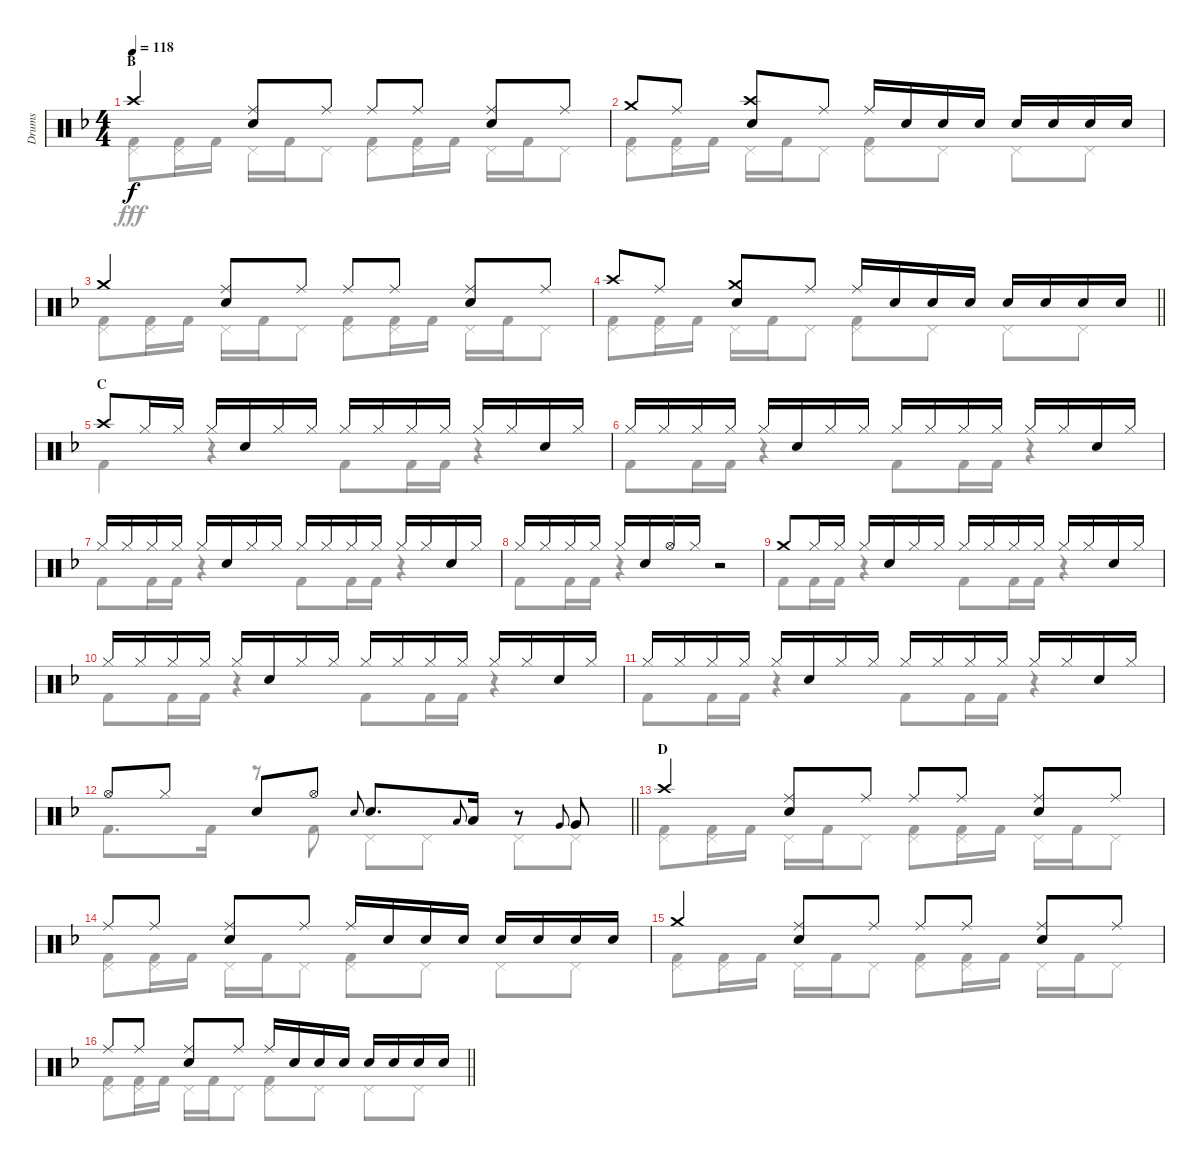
\track ("Drums" "Drums") {instrument percussion}
\staff {score}
\articulation defaults
\voice
\ts (4 4)
\section ("" "B")
\tempo 118
\clef neutral
\ks f "Crash high (hit)".4{dy f}
("Ride (middle)" "Snare (hit) 2").8 "Ride (middle)".8 "Ride (middle)".8 "Ride (middle)".8 ("Ride (middle)" "Snare (hit) 2").8 "Ride (middle)".8 |
"Crash medium (hit)".8 "Ride (middle)".8 ("Crash high (hit)" "Snare (hit) 2").8 "Ride (middle)".8 "Ride (middle)".16 "Snare (hit) 2".16 "Snare (hit) 2".16 "Snare (hit) 2".16 "Snare (hit) 2".16 "Snare (hit) 2".16 "Snare (hit) 2".16 "Snare (hit) 2".16 |
"Crash medium (hit)".4 ("Ride (middle)" "Snare (hit) 2").8 "Ride (middle)".8 "Ride (middle)".8 "Ride (middle)".8 ("Ride (middle)" "Snare (hit) 2").8 "Ride (middle)".8 |
\barLineRight lightlight "Crash high (hit)".8 "Ride (middle)".8
("Crash medium (hit)" "Snare (hit) 2").8 "Ride (middle)".8 "Ride (middle)".16 "Snare (hit) 2".16 "Snare (hit) 2".16 "Snare (hit) 2".16 "Snare (hit) 2".16 "Snare (hit) 2".16 "Snare (hit) 2".16 "Snare (hit) 2".16 |
\section ("" "C")
"Crash high (hit)".8 "Hi-Hat (closed)".16 "Hi-Hat (closed)".16 "Hi-Hat (closed)".16 "Snare (hit) 2".16 "Hi-Hat (closed)".16 "Hi-Hat (closed)".16 "Hi-Hat (closed)".16 "Hi-Hat (closed)".16 "Hi-Hat (closed)".16 "Hi-Hat (closed)".16 "Hi-Hat (closed)".16 "Hi-Hat (closed)".16 "Snare (hit) 2".16 "Hi-Hat (closed)".16 |
"Hi-Hat (closed)".16 "Hi-Hat (closed)".16 "Hi-Hat (closed)".16 "Hi-Hat (closed)".16 "Hi-Hat (closed)".16 "Snare (hit) 2".16 "Hi-Hat (closed)".16 "Hi-Hat (closed)".16 "Hi-Hat (closed)".16 "Hi-Hat (closed)".16 "Hi-Hat (closed)".16 "Hi-Hat (closed)".16 "Hi-Hat (closed)".16 "Hi-Hat (closed)".16 "Snare (hit) 2".16 "Hi-Hat (closed)".16 |
"Hi-Hat (closed)".16 "Hi-Hat (closed)".16 "Hi-Hat (closed)".16 "Hi-Hat (closed)".16 "Hi-Hat (closed)".16 "Snare (hit) 2".16 "Hi-Hat (closed)".16 "Hi-Hat (closed)".16 "Hi-Hat (closed)".16 "Hi-Hat (closed)".16 "Hi-Hat (closed)".16 "Hi-Hat (closed)".16 "Hi-Hat (closed)".16 "Hi-Hat (closed)".16 "Snare (hit) 2".16 "Hi-Hat (closed)".16 |
"Hi-Hat (closed)".16 "Hi-Hat (closed)".16 "Hi-Hat (closed)".16 "Hi-Hat (closed)".16 "Hi-Hat (closed)".16 "Snare (hit) 2".16 "Hi-Hat (open)".16 "Hi-Hat (closed)".16 r.2 |
"Crash medium (hit)".8 "Hi-Hat (closed)".16 "Hi-Hat (closed)".16 "Hi-Hat (closed)".16 "Snare (hit) 2".16 "Hi-Hat (closed)".16 "Hi-Hat (closed)".16 "Hi-Hat (closed)".16 "Hi-Hat (closed)".16 "Hi-Hat (closed)".16 "Hi-Hat (closed)".16 "Hi-Hat (closed)".16 "Hi-Hat (closed)".16 "Snare (hit) 2".16 "Hi-Hat (closed)".16 |
"Hi-Hat (closed)".16 "Hi-Hat (closed)".16 "Hi-Hat (closed)".16 "Hi-Hat (closed)".16 "Hi-Hat (closed)".16 "Snare (hit) 2".16 "Hi-Hat (closed)".16 "Hi-Hat (closed)".16 "Hi-Hat (closed)".16 "Hi-Hat (closed)".16 "Hi-Hat (closed)".16 "Hi-Hat (closed)".16 "Hi-Hat (closed)".16 "Hi-Hat (closed)".16 "Snare (hit) 2".16 "Hi-Hat (closed)".16 |
"Hi-Hat (closed)".16 "Hi-Hat (closed)".16 "Hi-Hat (closed)".16 "Hi-Hat (closed)".16 "Hi-Hat (closed)".16 "Snare (hit) 2".16 "Hi-Hat (closed)".16 "Hi-Hat (closed)".16 "Hi-Hat (closed)".16 "Hi-Hat (closed)".16 "Hi-Hat (closed)".16 "Hi-Hat (closed)".16 "Hi-Hat (closed)".16 "Hi-Hat (closed)".16 "Snare (hit) 2".16 "Hi-Hat (closed)".16 |
\barLineRight lightlight "Hi-Hat (open)".8 "Hi-Hat (closed)".8 "Snare (hit) 2".8 "Hi-Hat (open)".8 "Snare (hit) 2".8{gr onbeat} "Snare (hit) 2".8{d} "Low Tom (hit)".8{gr onbeat} "Low Tom (hit)".16
r.8 "Very Low Tom (hit)".8{gr onbeat} "Very Low Tom (hit)".8 |
\section ("" "D")
"Crash high (hit)".4 ("Ride (middle)" "Snare (hit) 2").8 "Ride (middle)".8 "Ride (middle)".8 "Ride (middle)".8 ("Ride (middle)" "Snare (hit) 2").8 "Ride (middle)".8 |
"Ride (middle)".8 "Ride (middle)".8 ("Ride (middle)" "Snare (hit) 2").8 "Ride (middle)".8 "Ride (middle)".16 "Snare (hit) 2".16 "Snare (hit) 2".16 "Snare (hit) 2".16 "Snare (hit) 2".16 "Snare (hit) 2".16 "Snare (hit) 2".16 "Snare (hit) 2".16 |
"Crash medium (hit)".4 ("Ride (middle)" "Snare (hit) 2").8 "Ride (middle)".8 "Ride (middle)".8 "Ride (middle)".8 ("Ride (middle)" "Snare (hit) 2").8 "Ride (middle)".8 |
\barLineRight lightlight "Ride (middle)".8 "Ride (middle)".8
("Ride (middle)" "Snare (hit) 2").8 "Ride (middle)".8 "Ride (middle)".16 "Snare (hit) 2".16 "Snare (hit) 2".16 "Snare (hit) 2".16 "Snare (hit) 2".16 "Snare (hit) 2".16 "Snare (hit) 2".16 "Snare (hit) 2".16
\voice
\clef neutral
\ottava regular
\simile none
\ks f
("Pedal Hi-Hat (hit)" "Kick (hit) 2").8{dy fff} ("Pedal Hi-Hat (hit)" "Kick (hit) 2").16 "Kick (hit) 2".16 "Pedal Hi-Hat (hit)".16 "Kick (hit) 2".16 "Pedal Hi-Hat (hit)".8 ("Pedal Hi-Hat (hit)" "Kick (hit) 2").8 ("Pedal Hi-Hat (hit)" "Kick (hit) 2").16 "Kick (hit) 2".16 "Pedal Hi-Hat (hit)".16 "Kick (hit) 2".16 "Pedal Hi-Hat (hit)".8 |
("Pedal Hi-Hat (hit)" "Kick (hit) 2").8 ("Pedal Hi-Hat (hit)" "Kick (hit) 2").16 "Kick (hit) 2".16 "Pedal Hi-Hat (hit)".16 "Kick (hit) 2".16 "Pedal Hi-Hat (hit)".8 ("Pedal Hi-Hat (hit)" "Kick (hit) 2").8 "Pedal Hi-Hat (hit)".8 "Pedal Hi-Hat (hit)".8 "Pedal Hi-Hat (hit)".8 |
("Pedal Hi-Hat (hit)" "Kick (hit) 2").8 ("Pedal Hi-Hat (hit)" "Kick (hit) 2").16 "Kick (hit) 2".16 "Pedal Hi-Hat (hit)".16 "Kick (hit) 2".16 "Pedal Hi-Hat (hit)".8 ("Pedal Hi-Hat (hit)" "Kick (hit) 2").8 ("Pedal Hi-Hat (hit)" "Kick (hit) 2").16 "Kick (hit) 2".16 "Pedal Hi-Hat (hit)".16 "Kick (hit) 2".16 "Pedal Hi-Hat (hit)".8 |
\barLineRight lightlight
("Pedal Hi-Hat (hit)" "Kick (hit) 2").8 ("Pedal Hi-Hat (hit)" "Kick (hit) 2").16 "Kick (hit) 2".16 "Pedal Hi-Hat (hit)".16 "Kick (hit) 2".16 "Pedal Hi-Hat (hit)".8 ("Pedal Hi-Hat (hit)" "Kick (hit) 2").8 "Pedal Hi-Hat (hit)".8 "Pedal Hi-Hat (hit)".8 "Pedal Hi-Hat (hit)".8 |
"Kick (hit) 2".4 r.4 "Kick (hit) 2".8 "Kick (hit) 2".16 "Kick (hit) 2".16 r.4 |
"Kick (hit) 2".8 "Kick (hit) 2".16 "Kick (hit) 2".16 r.4 "Kick (hit) 2".8 "Kick (hit) 2".16 "Kick (hit) 2".16 r.4 |
"Kick (hit) 2".8 "Kick (hit) 2".16 "Kick (hit) 2".16 r.4 "Kick (hit) 2".8 "Kick (hit) 2".16 "Kick (hit) 2".16 r.4 |
"Kick (hit) 2".8 "Kick (hit) 2".16 "Kick (hit) 2".16 r.4 r.2 |
"Kick (hit) 2".8 "Kick (hit) 2".16 "Kick (hit) 2".16 r.4 "Kick (hit) 2".8 "Kick (hit) 2".16 "Kick (hit) 2".16 r.4 |
"Kick (hit) 2".8 "Kick (hit) 2".16 "Kick (hit) 2".16 r.4 "Kick (hit) 2".8 "Kick (hit) 2".16 "Kick (hit) 2".16 r.4 |
"Kick (hit) 2".8 "Kick (hit) 2".16 "Kick (hit) 2".16 r.4 "Kick (hit) 2".8 "Kick (hit) 2".16 "Kick (hit) 2".16 r.4 |
\barLineRight lightlight "Kick (hit) 2".8{d} "Kick (hit) 2".16
r.8 "Kick (hit) 2".8 "Pedal Hi-Hat (hit)".8 "Pedal Hi-Hat (hit)".8 "Pedal Hi-Hat (hit)".8 "Pedal Hi-Hat (hit)".8 |
("Pedal Hi-Hat (hit)" "Kick (hit) 2").8 ("Pedal Hi-Hat (hit)" "Kick (hit) 2").16 "Kick (hit) 2".16 "Pedal Hi-Hat (hit)".16 "Kick (hit) 2".16 "Pedal Hi-Hat (hit)".8 ("Pedal Hi-Hat (hit)" "Kick (hit) 2").8 ("Pedal Hi-Hat (hit)" "Kick (hit) 2").16 "Kick (hit) 2".16 "Pedal Hi-Hat (hit)".16 "Kick (hit) 2".16 "Pedal Hi-Hat (hit)".8 |
("Pedal Hi-Hat (hit)" "Kick (hit) 2").8 ("Pedal Hi-Hat (hit)" "Kick (hit) 2").16 "Kick (hit) 2".16 "Pedal Hi-Hat (hit)".16 "Kick (hit) 2".16 "Pedal Hi-Hat (hit)".8 ("Pedal Hi-Hat (hit)" "Kick (hit) 2").8 "Pedal Hi-Hat (hit)".8 "Pedal Hi-Hat (hit)".8 "Pedal Hi-Hat (hit)".8 |
("Pedal Hi-Hat (hit)" "Kick (hit) 2").8 ("Pedal Hi-Hat (hit)" "Kick (hit) 2").16 "Kick (hit) 2".16 "Pedal Hi-Hat (hit)".16 "Kick (hit) 2".16 "Pedal Hi-Hat (hit)".8 ("Pedal Hi-Hat (hit)" "Kick (hit) 2").8 ("Pedal Hi-Hat (hit)" "Kick (hit) 2").16 "Kick (hit) 2".16 "Pedal Hi-Hat (hit)".16 "Kick (hit) 2".16 "Pedal Hi-Hat (hit)".8 |
\barLineRight lightlight
("Pedal Hi-Hat (hit)" "Kick (hit) 2").8 ("Pedal Hi-Hat (hit)" "Kick (hit) 2").16 "Kick (hit) 2".16 "Pedal Hi-Hat (hit)".16 "Kick (hit) 2".16 "Pedal Hi-Hat (hit)".8 ("Pedal Hi-Hat (hit)" "Kick (hit) 2").8 "Pedal Hi-Hat (hit)".8 "Pedal Hi-Hat (hit)".8 "Pedal Hi-Hat (hit)".8
